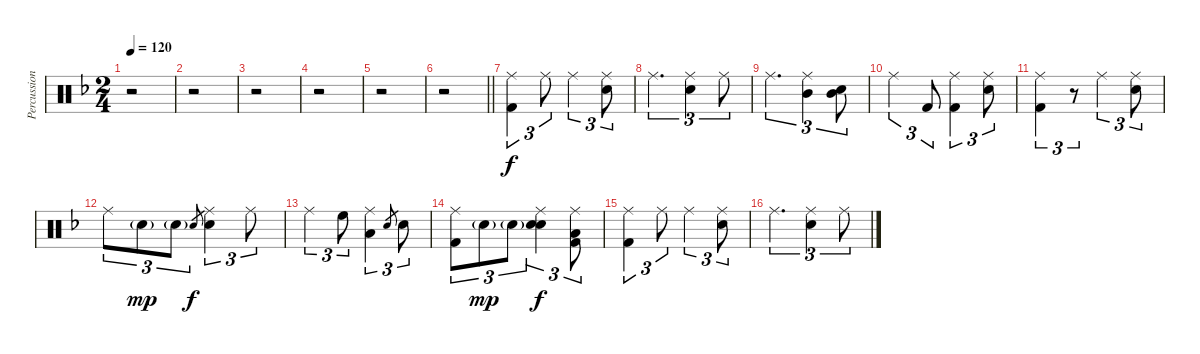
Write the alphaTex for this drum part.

\track ("Percussion" "Percussion") {instrument percussion}
\staff {score}
\articulation defaults
\ts (2 4)
\tempo 120
\clef neutral
\ks dminor
r.2{dy fff} |
r.2 |
r.2 |
r.2 |
r.2 |
\barLineRight lightlight
r.2 |
("Ride (middle)" "Kick (hit) 2").4{tu (3 2) dy f volume 12} "Ride (middle)".8{tu (3 2)} "Ride (middle)".4{tu (3 2)} ("Ride (middle)" "Snare (hit) 2").8{tu (3 2)} |
"Ride (middle)".4{d tu (3 2)} ("Ride (middle)" "Snare (hit) 2").4{tu (3 2)} "Ride (middle)".8{tu (3 2)} |
"Ride (middle)".4{d tu (3 2)} ("Ride (middle)" "Mid Tom (hit)").4{tu (3 2)} ("Mid Tom (hit)" "Snare (hit) 2").8{tu (3 2)} |
"Ride (middle)".4{tu (3 2)} "Kick (hit) 2".8{tu (3 2)} ("Ride (middle)" "Kick (hit) 2").4{tu (3 2)} ("Ride (middle)" "Snare (hit) 2").8{tu (3 2)} |
("Ride (middle)" "Kick (hit) 2").4{tu (3 2)} r.8{tu (3 2)} "Ride (middle)".4{tu (3 2)} ("Ride (middle)" "Snare (hit) 2").8{tu (3 2)} |
"Ride (middle)".8{tu (3 2)} "Snare (hit) 2"{g}.8{tu (3 2) dy mp} "Snare (hit) 2"{g}.8{tu (3 2)} "Snare (hit) 2".8{gr dy f} ("Ride (middle)" "Snare (hit) 2").4{tu (3 2)} "Ride (middle)".8{tu (3 2)} |
"Ride (middle)".4{tu (3 2)} "High Floor Tom (hit)".8{tu (3 2)} ("Ride (middle)" "Low Tom (hit)").4{tu (3 2)} "Snare (hit) 2".8{gr} "Snare (hit) 2".8{tu (3 2)} |
("Ride (middle)" "Kick (hit) 2").8{tu (3 2)} "Snare (hit) 2"{g}.8{tu (3 2) dy mp} "Snare (hit) 2"{g}.8{tu (3 2)} ("Ride (middle)" "Snare (hit) 2" "Electric Snare (hit)").4{tu (3 2) dy f} ("Ride (middle)" "Low Tom (hit)" "Kick (hit) 2").8{tu (3 2)} |
("Ride (middle)" "Kick (hit) 2").4{tu (3 2)} "Ride (middle)".8{tu (3 2)} "Ride (middle)".4{tu (3 2)} ("Ride (middle)" "Snare (hit) 2").8{tu (3 2)} |
"Ride (middle)".4{d tu (3 2)} ("Ride (middle)" "Snare (hit) 2").4{tu (3 2)} "Ride (middle)".8{tu (3 2)}
